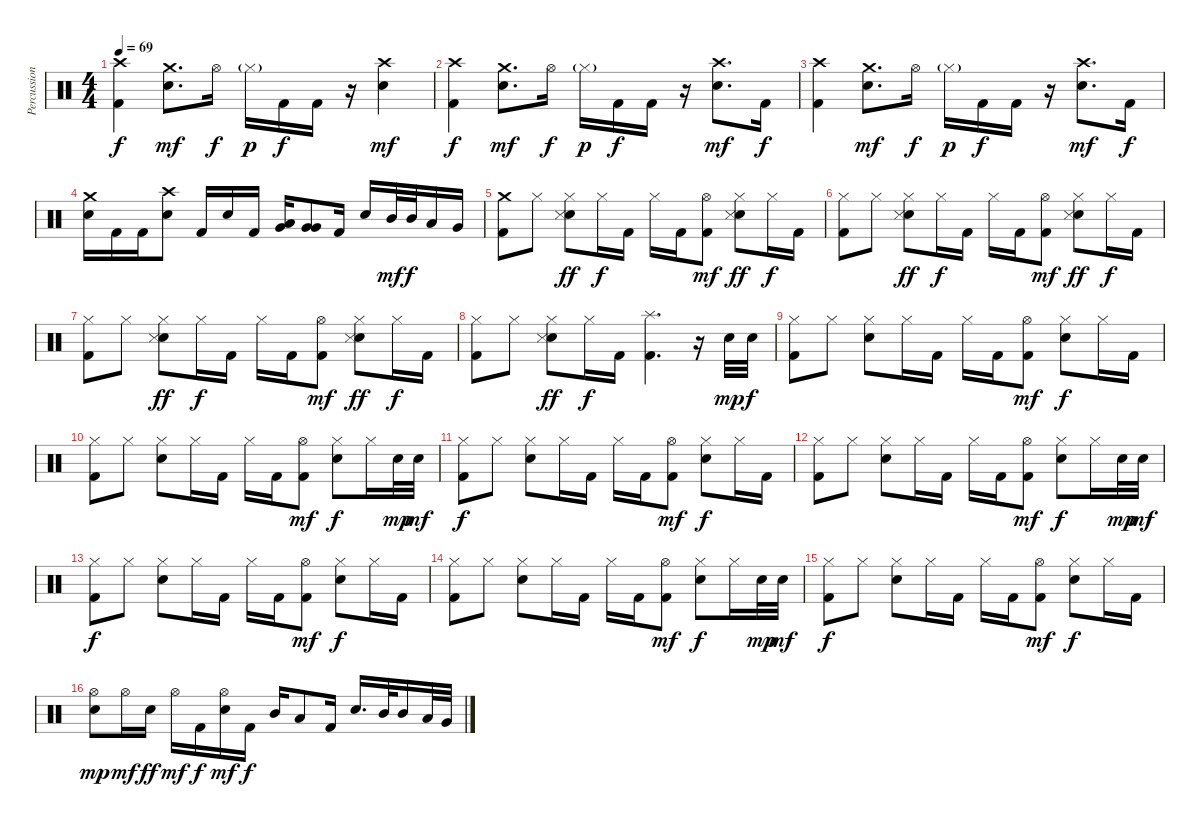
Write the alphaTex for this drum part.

\track ("Percussion" "Percussion") {instrument percussion}
\staff {score}
\articulation defaults
\ts (4 4)
\tempo 69
\clef neutral
\ks c
("Crash high (hit)" "Kick (hit) 2").4{dy f} ("Crash medium (hit)" "Snare (hit) 2").8{d dy mf} "Hi-Hat (open)".16{dy f} "Hi-Hat (closed)"{g}.16{dy p} "Kick (hit) 2".16{dy f} "Kick (hit) 2".16 r.16 ("Crash high (hit)" "Snare (hit) 2").4{dy mf} |
("Crash high (hit)" "Kick (hit) 2").4{dy f} ("Crash medium (hit)" "Snare (hit) 2").8{d dy mf} "Hi-Hat (open)".16{dy f} "Hi-Hat (closed)"{g}.16{dy p} "Kick (hit) 2".16{dy f} "Kick (hit) 2".16 r.16 ("Crash high (hit)" "Snare (hit) 2").8{d dy mf} "Kick (hit) 2".16{dy f} |
("Crash high (hit)" "Kick (hit) 2").4 ("Crash medium (hit)" "Snare (hit) 2").8{d dy mf} "Hi-Hat (open)".16{dy f} "Hi-Hat (closed)"{g}.16{dy p} "Kick (hit) 2".16{dy f} "Kick (hit) 2".16 r.16 ("Crash high (hit)" "Snare (hit) 2").8{d dy mf} "Kick (hit) 2".16{dy f} |
("Crash medium (hit)" "Snare (hit) 2").16 "Kick (hit) 2".16 "Kick (hit) 2".16 ("Crash high (hit)" "Snare (hit) 2").8 "Kick (hit) 2".16 "Snare (hit) 2".16 "Kick (hit) 2".16 ("Low Floor Tom (hit)" "Very Low Tom (hit)").16 ("Very Low Tom (hit)" "Very Low Tom (hit)").8 "Kick (hit) 2".16 "Snare (hit) 2".16 "Mid Tom (hit)".32{dy mf} "Mid Tom (hit)".32{dy f} "Low Tom (hit)".16 "Very Low Tom (hit)".16 |
("Crash medium (hit)" "Kick (hit) 2").8 "Hi-Hat (closed)".8 ("Hi-Hat (closed)" "Snare (hit) 2" "Snare (side stick) 3").8{dy ff} "Hi-Hat (closed)".16{dy f} "Kick (hit) 2".16 "Hi-Hat (closed)".16 "Kick (hit) 2".16 ("Hi-Hat (open)" "Kick (hit) 2").8{dy mf} ("Hi-Hat (closed)" "Snare (hit) 2" "Snare (side stick) 3").8{dy ff} "Hi-Hat (closed)".16{dy f} "Kick (hit) 2".16 |
("Hi-Hat (closed)" "Kick (hit) 2").8 "Hi-Hat (closed)".8 ("Hi-Hat (closed)" "Snare (hit) 2" "Snare (side stick) 3").8{dy ff} "Hi-Hat (closed)".16{dy f} "Kick (hit) 2".16 "Hi-Hat (closed)".16 "Kick (hit) 2".16 ("Hi-Hat (open)" "Kick (hit) 2").8{dy mf} ("Hi-Hat (closed)" "Snare (hit) 2" "Snare (side stick) 3").8{dy ff} "Hi-Hat (closed)".16{dy f} "Kick (hit) 2".16 |
("Hi-Hat (closed)" "Kick (hit) 2").8 "Hi-Hat (closed)".8 ("Hi-Hat (closed)" "Snare (hit) 2" "Snare (side stick) 3").8{dy ff} "Hi-Hat (closed)".16{dy f} "Kick (hit) 2".16 "Hi-Hat (closed)".16 "Kick (hit) 2".16 ("Hi-Hat (open)" "Kick (hit) 2").8{dy mf} ("Hi-Hat (closed)" "Snare (hit) 2" "Snare (side stick) 3").8{dy ff} "Hi-Hat (closed)".16{dy f} "Kick (hit) 2".16 |
("Hi-Hat (closed)" "Kick (hit) 2").8 "Hi-Hat (closed)".8 ("Hi-Hat (closed)" "Snare (hit) 2" "Snare (side stick) 3").8{dy ff} "Hi-Hat (closed)".16{dy f} "Kick (hit) 2".16 ("Splash (hit)" "Kick (hit) 2").4{d} r.16 "Electric Snare (hit)".32{dy mp} "Electric Snare (hit)".32{dy f} |
("Hi-Hat (closed)" "Kick (hit) 2").8 "Hi-Hat (closed)".8 ("Hi-Hat (closed)" "Snare (hit) 2").8 "Hi-Hat (closed)".16 "Kick (hit) 2".16 "Hi-Hat (closed)".16 "Kick (hit) 2".16 ("Hi-Hat (open)" "Kick (hit) 2").8{dy mf} ("Hi-Hat (closed)" "Snare (hit) 2").8{dy f} "Hi-Hat (closed)".16 "Kick (hit) 2".16 |
("Hi-Hat (closed)" "Kick (hit) 2").8 "Hi-Hat (closed)".8 ("Hi-Hat (closed)" "Snare (hit) 2").8 "Hi-Hat (closed)".16 "Kick (hit) 2".16 "Hi-Hat (closed)".16 "Kick (hit) 2".16 ("Hi-Hat (open)" "Kick (hit) 2").8{dy mf} ("Hi-Hat (closed)" "Snare (hit) 2").8{dy f} "Hi-Hat (closed)".16 "Electric Snare (hit)".32{dy mp} "Electric Snare (hit)".32{dy mf} |
("Hi-Hat (closed)" "Kick (hit) 2").8{dy f} "Hi-Hat (closed)".8 ("Hi-Hat (closed)" "Snare (hit) 2").8 "Hi-Hat (closed)".16 "Kick (hit) 2".16 "Hi-Hat (closed)".16 "Kick (hit) 2".16 ("Hi-Hat (open)" "Kick (hit) 2").8{dy mf} ("Hi-Hat (closed)" "Snare (hit) 2").8{dy f} "Hi-Hat (closed)".16 "Kick (hit) 2".16 |
("Hi-Hat (closed)" "Kick (hit) 2").8 "Hi-Hat (closed)".8 ("Hi-Hat (closed)" "Snare (hit) 2").8 "Hi-Hat (closed)".16 "Kick (hit) 2".16 "Hi-Hat (closed)".16 "Kick (hit) 2".16 ("Hi-Hat (open)" "Kick (hit) 2").8{dy mf} ("Hi-Hat (closed)" "Snare (hit) 2").8{dy f} "Hi-Hat (closed)".16 "Electric Snare (hit)".32{dy mp} "Electric Snare (hit)".32{dy mf} |
("Hi-Hat (closed)" "Kick (hit) 2").8{dy f} "Hi-Hat (closed)".8 ("Hi-Hat (closed)" "Snare (hit) 2").8 "Hi-Hat (closed)".16 "Kick (hit) 2".16 "Hi-Hat (closed)".16 "Kick (hit) 2".16 ("Hi-Hat (open)" "Kick (hit) 2").8{dy mf} ("Hi-Hat (closed)" "Snare (hit) 2").8{dy f} "Hi-Hat (closed)".16 "Kick (hit) 2".16 |
("Hi-Hat (closed)" "Kick (hit) 2").8 "Hi-Hat (closed)".8 ("Hi-Hat (closed)" "Snare (hit) 2").8 "Hi-Hat (closed)".16 "Kick (hit) 2".16 "Hi-Hat (closed)".16 "Kick (hit) 2".16 ("Hi-Hat (open)" "Kick (hit) 2").8{dy mf} ("Hi-Hat (closed)" "Snare (hit) 2").8{dy f} "Hi-Hat (closed)".16 "Electric Snare (hit)".32{dy mp} "Electric Snare (hit)".32{dy mf} |
("Hi-Hat (closed)" "Kick (hit) 2").8{dy f} "Hi-Hat (closed)".8 ("Hi-Hat (closed)" "Snare (hit) 2").8 "Hi-Hat (closed)".16 "Kick (hit) 2".16 "Hi-Hat (closed)".16 "Kick (hit) 2".16 ("Hi-Hat (open)" "Kick (hit) 2").8{dy mf} ("Hi-Hat (closed)" "Snare (hit) 2").8{dy f} "Hi-Hat (closed)".16 "Kick (hit) 2".16 |
("Hi-Hat (open)" "Snare (hit) 2").8{dy mp} "Hi-Hat (open)".16{dy mf} "Snare (hit) 2".16{dy ff} "Hi-Hat (open)".16{dy mf} "Kick (hit) 2".16{dy f} ("Hi-Hat (open)" "Snare (hit) 2").16{dy mf} "Kick (hit) 2".16{dy f} "Mid Tom (hit)".16 "Low Tom (hit)".8 "Kick (hit) 2".16 "Snare (hit) 2".16{d} "Mid Tom (hit)".32 "Mid Tom (hit)".16 "Low Tom (hit)".32 "Very Low Tom (hit)".32
